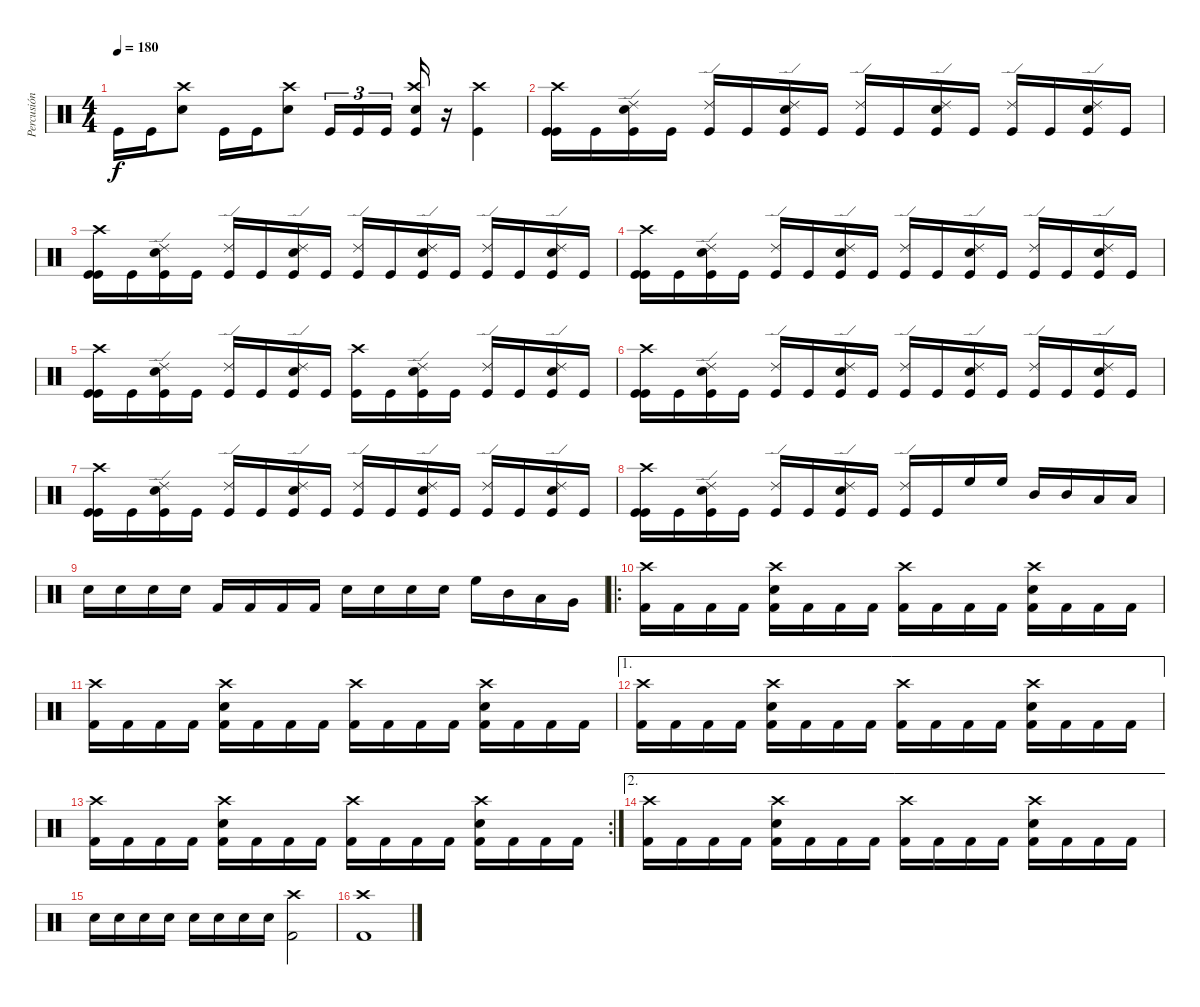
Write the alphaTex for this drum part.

\track ("Percusión" "Percusión") {instrument percussion}
\staff {score}
\articulation defaults
\ts (4 4)
\tempo 180
\clef neutral
\ks c "Kick (hit)".16{dy f} "Kick (hit)".16
("Crash high (hit)" "Snare (hit) 2").8 "Kick (hit)".16 "Kick (hit)".16 ("Crash high (hit)" "Snare (hit) 2").8 "Kick (hit)".16{tu (3 2)} "Kick (hit)".16{tu (3 2)} "Kick (hit)".16{tu (3 2)} ("Crash high (hit)" "Snare (hit) 2" "Kick (hit)").16 r.16 ("Crash high (hit)" "Kick (hit)").4 |
("Crash high (hit)" "Kick (hit)" "Kick (hit)").16 "Kick (hit)".16 ("Ride (edge) 2" "Snare (hit) 2" "Kick (hit)").16 "Kick (hit)".16 ("Ride (edge) 2" "Kick (hit)").16 "Kick (hit)".16 ("Ride (edge) 2" "Snare (hit) 2" "Kick (hit)").16 "Kick (hit)".16 ("Ride (edge) 2" "Kick (hit)").16 "Kick (hit)".16 ("Ride (edge) 2" "Snare (hit) 2" "Kick (hit)").16 "Kick (hit)".16 ("Ride (edge) 2" "Kick (hit)").16 "Kick (hit)".16 ("Ride (edge) 2" "Snare (hit) 2" "Kick (hit)").16 "Kick (hit)".16 |
("Crash high (hit)" "Kick (hit)" "Kick (hit)").16 "Kick (hit)".16 ("Ride (edge) 2" "Snare (hit) 2" "Kick (hit)").16 "Kick (hit)".16 ("Ride (edge) 2" "Kick (hit)").16 "Kick (hit)".16 ("Ride (edge) 2" "Snare (hit) 2" "Kick (hit)").16 "Kick (hit)".16 ("Ride (edge) 2" "Kick (hit)").16 "Kick (hit)".16 ("Ride (edge) 2" "Snare (hit) 2" "Kick (hit)").16 "Kick (hit)".16 ("Ride (edge) 2" "Kick (hit)").16 "Kick (hit)".16 ("Ride (edge) 2" "Snare (hit) 2" "Kick (hit)").16 "Kick (hit)".16 |
("Crash high (hit)" "Kick (hit)" "Kick (hit)").16 "Kick (hit)".16 ("Ride (edge) 2" "Snare (hit) 2" "Kick (hit)").16 "Kick (hit)".16 ("Ride (edge) 2" "Kick (hit)").16 "Kick (hit)".16 ("Ride (edge) 2" "Snare (hit) 2" "Kick (hit)").16 "Kick (hit)".16 ("Ride (edge) 2" "Kick (hit)").16 "Kick (hit)".16 ("Ride (edge) 2" "Snare (hit) 2" "Kick (hit)").16 "Kick (hit)".16 ("Ride (edge) 2" "Kick (hit)").16 "Kick (hit)".16 ("Ride (edge) 2" "Snare (hit) 2" "Kick (hit)").16 "Kick (hit)".16 |
("Crash high (hit)" "Kick (hit)" "Kick (hit)").16 "Kick (hit)".16 ("Ride (edge) 2" "Snare (hit) 2" "Kick (hit)").16 "Kick (hit)".16 ("Ride (edge) 2" "Kick (hit)").16 "Kick (hit)".16 ("Ride (edge) 2" "Snare (hit) 2" "Kick (hit)").16 "Kick (hit)".16 ("Crash high (hit)" "Kick (hit)").16 "Kick (hit)".16 ("Ride (edge) 2" "Snare (hit) 2" "Kick (hit)").16 "Kick (hit)".16 ("Ride (edge) 2" "Kick (hit)").16 "Kick (hit)".16 ("Ride (edge) 2" "Snare (hit) 2" "Kick (hit)").16 "Kick (hit)".16 |
("Crash high (hit)" "Kick (hit)" "Kick (hit)").16 "Kick (hit)".16 ("Ride (edge) 2" "Snare (hit) 2" "Kick (hit)").16 "Kick (hit)".16 ("Ride (edge) 2" "Kick (hit)").16 "Kick (hit)".16 ("Ride (edge) 2" "Snare (hit) 2" "Kick (hit)").16 "Kick (hit)".16 ("Ride (edge) 2" "Kick (hit)").16 "Kick (hit)".16 ("Ride (edge) 2" "Snare (hit) 2" "Kick (hit)").16 "Kick (hit)".16 ("Ride (edge) 2" "Kick (hit)").16 "Kick (hit)".16 ("Ride (edge) 2" "Snare (hit) 2" "Kick (hit)").16 "Kick (hit)".16 |
("Crash high (hit)" "Kick (hit)" "Kick (hit)").16 "Kick (hit)".16 ("Ride (edge) 2" "Snare (hit) 2" "Kick (hit)").16 "Kick (hit)".16 ("Ride (edge) 2" "Kick (hit)").16 "Kick (hit)".16 ("Ride (edge) 2" "Snare (hit) 2" "Kick (hit)").16 "Kick (hit)".16 ("Ride (edge) 2" "Kick (hit)").16 "Kick (hit)".16 ("Ride (edge) 2" "Snare (hit) 2" "Kick (hit)").16 "Kick (hit)".16 ("Ride (edge) 2" "Kick (hit)").16 "Kick (hit)".16 ("Ride (edge) 2" "Snare (hit) 2" "Kick (hit)").16 "Kick (hit)".16 |
("Crash high (hit)" "Kick (hit)" "Kick (hit)").16 "Kick (hit)".16 ("Ride (edge) 2" "Snare (hit) 2" "Kick (hit)").16 "Kick (hit)".16 ("Ride (edge) 2" "Kick (hit)").16 "Kick (hit)".16 ("Ride (edge) 2" "Snare (hit) 2" "Kick (hit)").16 "Kick (hit)".16 ("Ride (edge) 2" "Kick (hit)").16 "Kick (hit)".16 "High Floor Tom (hit)".16 "High Floor Tom (hit)".16 "Mid Tom (hit)".16 "Mid Tom (hit)".16 "Low Tom (hit)".16 "Low Tom (hit)".16 |
"Electric Snare (hit)".16 "Electric Snare (hit)".16 "Electric Snare (hit)".16 "Electric Snare (hit)".16 "Kick (hit) 2".16 "Kick (hit) 2".16 "Kick (hit) 2".16 "Kick (hit) 2".16 "Electric Snare (hit)".16 "Electric Snare (hit)".16 "Electric Snare (hit)".16 "Electric Snare (hit)".16 "High Floor Tom (hit)".16 "Mid Tom (hit)".16 "Low Tom (hit)".16 "Very Low Tom (hit)".16 |
\ro
("Crash high (hit)" "Kick (hit) 2").16 "Kick (hit) 2".16 "Kick (hit) 2".16 "Kick (hit) 2".16 ("Crash high (hit)" "Kick (hit) 2" "Electric Snare (hit)").16 "Kick (hit) 2".16 "Kick (hit) 2".16 "Kick (hit) 2".16 ("Crash high (hit)" "Kick (hit) 2").16 "Kick (hit) 2".16 "Kick (hit) 2".16 "Kick (hit) 2".16 ("Crash high (hit)" "Kick (hit) 2" "Electric Snare (hit)").16 "Kick (hit) 2".16 "Kick (hit) 2".16 "Kick (hit) 2".16 |
("Crash high (hit)" "Kick (hit) 2").16 "Kick (hit) 2".16 "Kick (hit) 2".16 "Kick (hit) 2".16 ("Crash high (hit)" "Kick (hit) 2" "Electric Snare (hit)").16 "Kick (hit) 2".16 "Kick (hit) 2".16 "Kick (hit) 2".16 ("Crash high (hit)" "Kick (hit) 2").16 "Kick (hit) 2".16 "Kick (hit) 2".16 "Kick (hit) 2".16 ("Crash high (hit)" "Kick (hit) 2" "Electric Snare (hit)").16 "Kick (hit) 2".16 "Kick (hit) 2".16 "Kick (hit) 2".16 |
\ae 1
("Crash high (hit)" "Kick (hit) 2").16 "Kick (hit) 2".16 "Kick (hit) 2".16 "Kick (hit) 2".16 ("Crash high (hit)" "Kick (hit) 2" "Electric Snare (hit)").16 "Kick (hit) 2".16 "Kick (hit) 2".16 "Kick (hit) 2".16 ("Crash high (hit)" "Kick (hit) 2").16 "Kick (hit) 2".16 "Kick (hit) 2".16 "Kick (hit) 2".16 ("Crash high (hit)" "Kick (hit) 2" "Electric Snare (hit)").16 "Kick (hit) 2".16 "Kick (hit) 2".16 "Kick (hit) 2".16 |
\rc 2
("Crash high (hit)" "Kick (hit) 2").16 "Kick (hit) 2".16 "Kick (hit) 2".16 "Kick (hit) 2".16 ("Crash high (hit)" "Kick (hit) 2" "Electric Snare (hit)").16 "Kick (hit) 2".16 "Kick (hit) 2".16 "Kick (hit) 2".16 ("Crash high (hit)" "Kick (hit) 2").16 "Kick (hit) 2".16 "Kick (hit) 2".16 "Kick (hit) 2".16 ("Crash high (hit)" "Kick (hit) 2" "Electric Snare (hit)").16 "Kick (hit) 2".16 "Kick (hit) 2".16 "Kick (hit) 2".16 |
\ae 2
("Crash high (hit)" "Kick (hit) 2").16 "Kick (hit) 2".16 "Kick (hit) 2".16 "Kick (hit) 2".16 ("Crash high (hit)" "Kick (hit) 2" "Electric Snare (hit)").16 "Kick (hit) 2".16 "Kick (hit) 2".16 "Kick (hit) 2".16 ("Crash high (hit)" "Kick (hit) 2").16 "Kick (hit) 2".16 "Kick (hit) 2".16 "Kick (hit) 2".16 ("Crash high (hit)" "Kick (hit) 2" "Electric Snare (hit)").16 "Kick (hit) 2".16 "Kick (hit) 2".16 "Kick (hit) 2".16 |
"Electric Snare (hit)".16 "Electric Snare (hit)".16 "Electric Snare (hit)".16 "Electric Snare (hit)".16 "Electric Snare (hit)".16 "Electric Snare (hit)".16 "Electric Snare (hit)".16 "Electric Snare (hit)".16 ("Crash high (hit)" "Kick (hit) 2").2 |
("Crash high (hit)" "Kick (hit) 2").1
